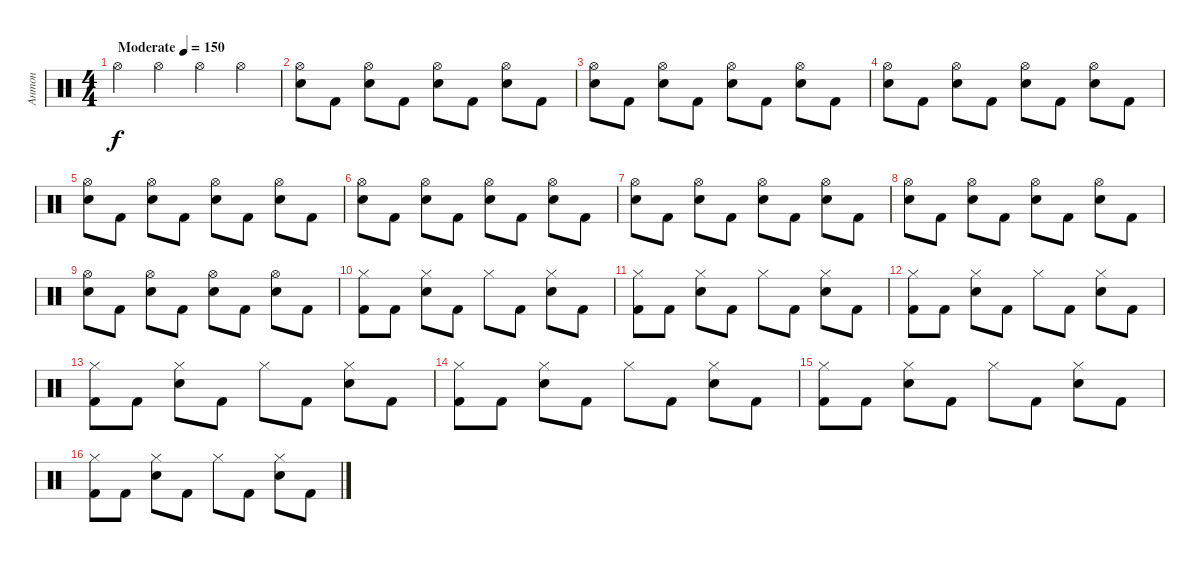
\track ("Антон" "Антон") {instrument percussion}
\staff {score}
\articulation defaults
\ts (4 4)
\tempo (150 "Moderate")
\clef neutral
\ks c "Hi-Hat (open)".4{dy f} "Hi-Hat (open)".4 "Hi-Hat (open)".4 "Hi-Hat (open)".4
|
("Hi-Hat (open)" "Electric Snare (hit)").8 "Kick (hit) 2".8 ("Hi-Hat (open)" "Electric Snare (hit)").8 "Kick (hit) 2".8 ("Hi-Hat (open)" "Electric Snare (hit)").8 "Kick (hit) 2".8 ("Hi-Hat (open)" "Electric Snare (hit)").8 "Kick (hit) 2".8 |
("Hi-Hat (open)" "Electric Snare (hit)").8 "Kick (hit) 2".8 ("Hi-Hat (open)" "Electric Snare (hit)").8 "Kick (hit) 2".8 ("Hi-Hat (open)" "Electric Snare (hit)").8 "Kick (hit) 2".8 ("Hi-Hat (open)" "Electric Snare (hit)").8 "Kick (hit) 2".8 |
("Hi-Hat (open)" "Electric Snare (hit)").8 "Kick (hit) 2".8 ("Hi-Hat (open)" "Electric Snare (hit)").8 "Kick (hit) 2".8 ("Hi-Hat (open)" "Electric Snare (hit)").8 "Kick (hit) 2".8 ("Hi-Hat (open)" "Electric Snare (hit)").8 "Kick (hit) 2".8 |
("Hi-Hat (open)" "Electric Snare (hit)").8 "Kick (hit) 2".8 ("Hi-Hat (open)" "Electric Snare (hit)").8 "Kick (hit) 2".8 ("Hi-Hat (open)" "Electric Snare (hit)").8 "Kick (hit) 2".8 ("Hi-Hat (open)" "Electric Snare (hit)").8 "Kick (hit) 2".8 |
("Hi-Hat (open)" "Electric Snare (hit)").8 "Kick (hit) 2".8 ("Hi-Hat (open)" "Electric Snare (hit)").8 "Kick (hit) 2".8 ("Hi-Hat (open)" "Electric Snare (hit)").8 "Kick (hit) 2".8 ("Hi-Hat (open)" "Electric Snare (hit)").8 "Kick (hit) 2".8 |
("Hi-Hat (open)" "Electric Snare (hit)").8 "Kick (hit) 2".8 ("Hi-Hat (open)" "Electric Snare (hit)").8 "Kick (hit) 2".8 ("Hi-Hat (open)" "Electric Snare (hit)").8 "Kick (hit) 2".8 ("Hi-Hat (open)" "Electric Snare (hit)").8 "Kick (hit) 2".8 |
("Hi-Hat (open)" "Electric Snare (hit)").8 "Kick (hit) 2".8 ("Hi-Hat (open)" "Electric Snare (hit)").8 "Kick (hit) 2".8 ("Hi-Hat (open)" "Electric Snare (hit)").8 "Kick (hit) 2".8 ("Hi-Hat (open)" "Electric Snare (hit)").8 "Kick (hit) 2".8 |
("Hi-Hat (open)" "Electric Snare (hit)").8 "Kick (hit) 2".8 ("Hi-Hat (open)" "Electric Snare (hit)").8 "Kick (hit) 2".8 ("Hi-Hat (open)" "Electric Snare (hit)").8 "Kick (hit) 2".8 ("Hi-Hat (open)" "Electric Snare (hit)").8 "Kick (hit) 2".8 |
("Hi-Hat (closed)" "Kick (hit) 2").8 "Kick (hit) 2".8 ("Hi-Hat (closed)" "Electric Snare (hit)").8 "Kick (hit) 2".8 "Hi-Hat (closed)".8 "Kick (hit) 2".8 ("Hi-Hat (closed)" "Electric Snare (hit)").8 "Kick (hit) 2".8 |
("Hi-Hat (closed)" "Kick (hit) 2").8 "Kick (hit) 2".8 ("Hi-Hat (closed)" "Electric Snare (hit)").8 "Kick (hit) 2".8 "Hi-Hat (closed)".8 "Kick (hit) 2".8 ("Hi-Hat (closed)" "Electric Snare (hit)").8 "Kick (hit) 2".8 |
("Hi-Hat (closed)" "Kick (hit) 2").8 "Kick (hit) 2".8 ("Hi-Hat (closed)" "Electric Snare (hit)").8 "Kick (hit) 2".8 "Hi-Hat (closed)".8 "Kick (hit) 2".8 ("Hi-Hat (closed)" "Electric Snare (hit)").8 "Kick (hit) 2".8 |
("Hi-Hat (closed)" "Kick (hit) 2").8 "Kick (hit) 2".8 ("Hi-Hat (closed)" "Electric Snare (hit)").8 "Kick (hit) 2".8 "Hi-Hat (closed)".8 "Kick (hit) 2".8 ("Hi-Hat (closed)" "Electric Snare (hit)").8 "Kick (hit) 2".8 |
("Hi-Hat (closed)" "Kick (hit) 2").8 "Kick (hit) 2".8 ("Hi-Hat (closed)" "Electric Snare (hit)").8 "Kick (hit) 2".8 "Hi-Hat (closed)".8 "Kick (hit) 2".8 ("Hi-Hat (closed)" "Electric Snare (hit)").8 "Kick (hit) 2".8 |
("Hi-Hat (closed)" "Kick (hit) 2").8 "Kick (hit) 2".8 ("Hi-Hat (closed)" "Electric Snare (hit)").8 "Kick (hit) 2".8 "Hi-Hat (closed)".8 "Kick (hit) 2".8 ("Hi-Hat (closed)" "Electric Snare (hit)").8 "Kick (hit) 2".8 |
("Hi-Hat (closed)" "Kick (hit) 2").8 "Kick (hit) 2".8 ("Hi-Hat (closed)" "Electric Snare (hit)").8 "Kick (hit) 2".8 "Hi-Hat (closed)".8 "Kick (hit) 2".8 ("Hi-Hat (closed)" "Electric Snare (hit)").8 "Kick (hit) 2".8
